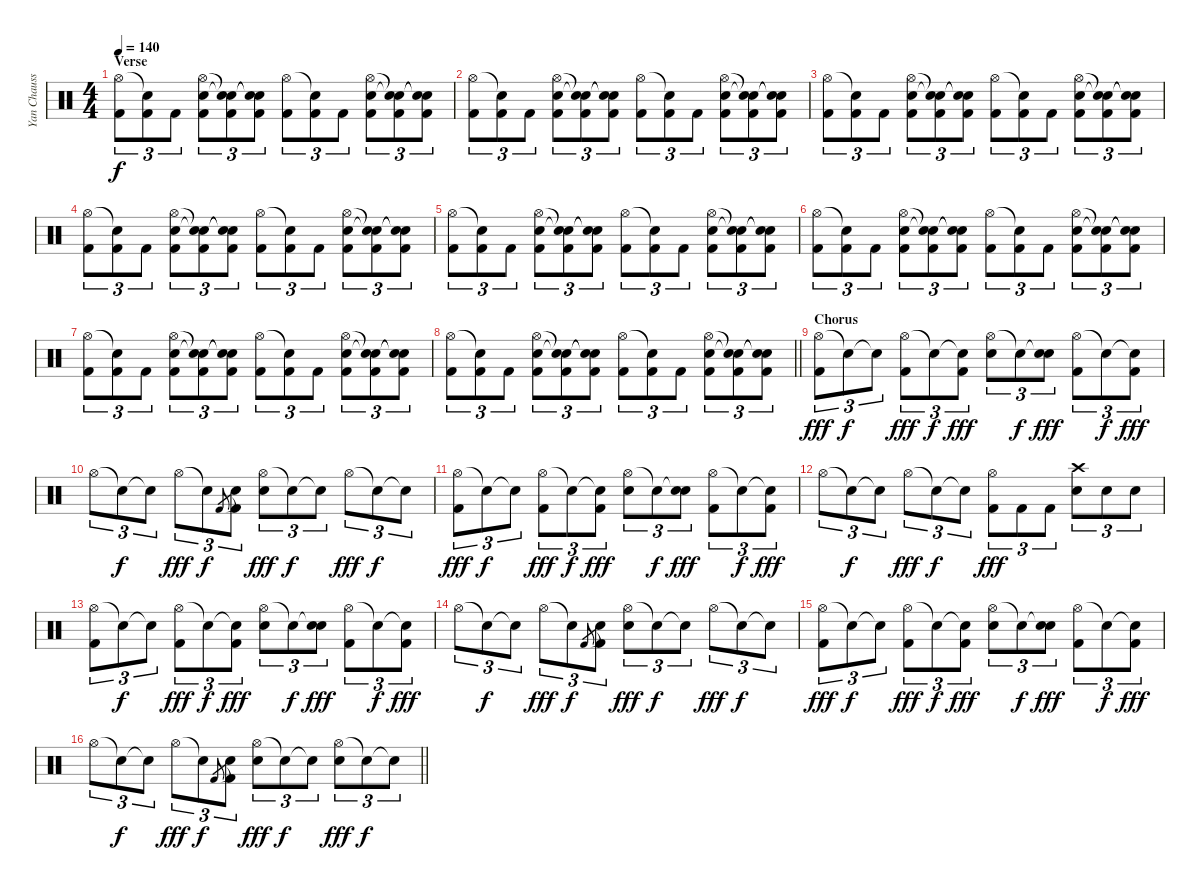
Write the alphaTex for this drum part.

\track ("Yan Chausse" "Yan Chauss") {instrument percussion}
\staff {score}
\articulation defaults
\ts (4 4)
\section ("" "Verse")
\tempo 140
\clef neutral
\ks c
("Hi-Hat (open)" "Kick (hit) 2").8{tu (3 2) dy f} ("Snare (hit)"{t} "Kick (hit) 2").8{tu (3 2)} "Kick (hit) 2".8{tu (3 2)} ("Hi-Hat (open)" "Snare (hit) 2" "Kick (hit) 2").8{tu (3 2)} ("Snare (hit)"{t} "Snare (hit)"{t} "Kick (hit) 2").8{tu (3 2)} ("Snare (hit)"{t} "Snare (hit)"{t} "Kick (hit) 2").8{tu (3 2)} ("Hi-Hat (open)" "Kick (hit) 2").8{tu (3 2)} ("Snare (hit)"{t} "Kick (hit) 2").8{tu (3 2)} "Kick (hit) 2".8{tu (3 2)} ("Hi-Hat (open)" "Snare (hit) 2" "Kick (hit) 2").8{tu (3 2)} ("Snare (hit)"{t} "Snare (hit)"{t} "Kick (hit) 2").8{tu (3 2)} ("Snare (hit)"{t} "Snare (hit)"{t} "Kick (hit) 2").8{tu (3 2)} |
("Hi-Hat (open)" "Kick (hit) 2").8{tu (3 2)} ("Snare (hit)"{t} "Kick (hit) 2").8{tu (3 2)} "Kick (hit) 2".8{tu (3 2)} ("Hi-Hat (open)" "Snare (hit) 2" "Kick (hit) 2").8{tu (3 2)} ("Snare (hit)"{t} "Snare (hit)"{t} "Kick (hit) 2").8{tu (3 2)} ("Snare (hit)"{t} "Snare (hit)"{t} "Kick (hit) 2").8{tu (3 2)} ("Hi-Hat (open)" "Kick (hit) 2").8{tu (3 2)} ("Snare (hit)"{t} "Kick (hit) 2").8{tu (3 2)} "Kick (hit) 2".8{tu (3 2)} ("Hi-Hat (open)" "Snare (hit) 2" "Kick (hit) 2").8{tu (3 2)} ("Snare (hit)"{t} "Snare (hit)"{t} "Kick (hit) 2").8{tu (3 2)} ("Snare (hit)"{t} "Snare (hit)"{t} "Kick (hit) 2").8{tu (3 2)} |
("Hi-Hat (open)" "Kick (hit) 2").8{tu (3 2)} ("Snare (hit)"{t} "Kick (hit) 2").8{tu (3 2)} "Kick (hit) 2".8{tu (3 2)} ("Hi-Hat (open)" "Snare (hit) 2" "Kick (hit) 2").8{tu (3 2)} ("Snare (hit)"{t} "Snare (hit)"{t} "Kick (hit) 2").8{tu (3 2)} ("Snare (hit)"{t} "Snare (hit)"{t} "Kick (hit) 2").8{tu (3 2)} ("Hi-Hat (open)" "Kick (hit) 2").8{tu (3 2)} ("Snare (hit)"{t} "Kick (hit) 2").8{tu (3 2)} "Kick (hit) 2".8{tu (3 2)} ("Hi-Hat (open)" "Snare (hit) 2" "Kick (hit) 2").8{tu (3 2)} ("Snare (hit)"{t} "Snare (hit)"{t} "Kick (hit) 2").8{tu (3 2)} ("Snare (hit)"{t} "Snare (hit)"{t} "Kick (hit) 2").8{tu (3 2)} |
("Hi-Hat (open)" "Kick (hit) 2").8{tu (3 2)} ("Snare (hit)"{t} "Kick (hit) 2").8{tu (3 2)} "Kick (hit) 2".8{tu (3 2)} ("Hi-Hat (open)" "Snare (hit) 2" "Kick (hit) 2").8{tu (3 2)} ("Snare (hit)"{t} "Snare (hit)"{t} "Kick (hit) 2").8{tu (3 2)} ("Snare (hit)"{t} "Snare (hit)"{t} "Kick (hit) 2").8{tu (3 2)} ("Hi-Hat (open)" "Kick (hit) 2").8{tu (3 2)} ("Snare (hit)"{t} "Kick (hit) 2").8{tu (3 2)} "Kick (hit) 2".8{tu (3 2)} ("Hi-Hat (open)" "Snare (hit) 2" "Kick (hit) 2").8{tu (3 2)} ("Snare (hit)"{t} "Snare (hit)"{t} "Kick (hit) 2").8{tu (3 2)} ("Snare (hit)"{t} "Snare (hit)"{t} "Kick (hit) 2").8{tu (3 2)} |
("Hi-Hat (open)" "Kick (hit) 2").8{tu (3 2)} ("Snare (hit)"{t} "Kick (hit) 2").8{tu (3 2)} "Kick (hit) 2".8{tu (3 2)} ("Hi-Hat (open)" "Snare (hit) 2" "Kick (hit) 2").8{tu (3 2)} ("Snare (hit)"{t} "Snare (hit)"{t} "Kick (hit) 2").8{tu (3 2)} ("Snare (hit)"{t} "Snare (hit)"{t} "Kick (hit) 2").8{tu (3 2)} ("Hi-Hat (open)" "Kick (hit) 2").8{tu (3 2)} ("Snare (hit)"{t} "Kick (hit) 2").8{tu (3 2)} "Kick (hit) 2".8{tu (3 2)} ("Hi-Hat (open)" "Snare (hit) 2" "Kick (hit) 2").8{tu (3 2)} ("Snare (hit)"{t} "Snare (hit)"{t} "Kick (hit) 2").8{tu (3 2)} ("Snare (hit)"{t} "Snare (hit)"{t} "Kick (hit) 2").8{tu (3 2)} |
("Hi-Hat (open)" "Kick (hit) 2").8{tu (3 2)} ("Snare (hit)"{t} "Kick (hit) 2").8{tu (3 2)} "Kick (hit) 2".8{tu (3 2)} ("Hi-Hat (open)" "Snare (hit) 2" "Kick (hit) 2").8{tu (3 2)} ("Snare (hit)"{t} "Snare (hit)"{t} "Kick (hit) 2").8{tu (3 2)} ("Snare (hit)"{t} "Snare (hit)"{t} "Kick (hit) 2").8{tu (3 2)} ("Hi-Hat (open)" "Kick (hit) 2").8{tu (3 2)} ("Snare (hit)"{t} "Kick (hit) 2").8{tu (3 2)} "Kick (hit) 2".8{tu (3 2)} ("Hi-Hat (open)" "Snare (hit) 2" "Kick (hit) 2").8{tu (3 2)} ("Snare (hit)"{t} "Snare (hit)"{t} "Kick (hit) 2").8{tu (3 2)} ("Snare (hit)"{t} "Snare (hit)"{t} "Kick (hit) 2").8{tu (3 2)} |
("Hi-Hat (open)" "Kick (hit) 2").8{tu (3 2)} ("Snare (hit)"{t} "Kick (hit) 2").8{tu (3 2)} "Kick (hit) 2".8{tu (3 2)} ("Hi-Hat (open)" "Snare (hit) 2" "Kick (hit) 2").8{tu (3 2)} ("Snare (hit)"{t} "Snare (hit)"{t} "Kick (hit) 2").8{tu (3 2)} ("Snare (hit)"{t} "Snare (hit)"{t} "Kick (hit) 2").8{tu (3 2)} ("Hi-Hat (open)" "Kick (hit) 2").8{tu (3 2)} ("Snare (hit)"{t} "Kick (hit) 2").8{tu (3 2)} "Kick (hit) 2".8{tu (3 2)} ("Hi-Hat (open)" "Snare (hit) 2" "Kick (hit) 2").8{tu (3 2)} ("Snare (hit)"{t} "Snare (hit)"{t} "Kick (hit) 2").8{tu (3 2)} ("Snare (hit)"{t} "Snare (hit)"{t} "Kick (hit) 2").8{tu (3 2)} |
\barLineRight lightlight
("Hi-Hat (open)" "Kick (hit) 2").8{tu (3 2)} ("Snare (hit)"{t} "Kick (hit) 2").8{tu (3 2)} "Kick (hit) 2".8{tu (3 2)} ("Hi-Hat (open)" "Snare (hit) 2" "Kick (hit) 2").8{tu (3 2)} ("Snare (hit)"{t} "Snare (hit)"{t} "Kick (hit) 2").8{tu (3 2)} ("Snare (hit)"{t} "Snare (hit)"{t} "Kick (hit) 2").8{tu (3 2)} ("Hi-Hat (open)" "Kick (hit) 2").8{tu (3 2)} ("Snare (hit)"{t} "Kick (hit) 2").8{tu (3 2)} "Kick (hit) 2".8{tu (3 2)} ("Hi-Hat (open)" "Snare (hit) 2" "Kick (hit) 2").8{tu (3 2)} ("Snare (hit)"{t} "Snare (hit)"{t} "Kick (hit) 2").8{tu (3 2)} ("Snare (hit)"{t} "Snare (hit)"{t} "Kick (hit) 2").8{tu (3 2)} |
\section ("" "Chorus")
("Hi-Hat (open)" "Kick (hit) 2").8{tu (3 2) dy fff} "Snare (hit)"{t}.8{tu (3 2) dy f} "Snare (hit)"{t}.8{tu (3 2)} ("Hi-Hat (open)" "Kick (hit) 2").8{tu (3 2) dy fff} "Snare (hit)"{t}.8{tu (3 2) dy f} ("Snare (hit)"{t} "Kick (hit) 2").8{tu (3 2) dy fff} ("Hi-Hat (open)" "Snare (hit) 2").8{tu (3 2)} "Snare (hit)"{t}.8{tu (3 2) dy f} ("Snare (hit)"{t} "Snare (hit) 2").8{tu (3 2) dy fff} ("Hi-Hat (open)" "Kick (hit) 2").8{tu (3 2)} "Snare (hit)"{t}.8{tu (3 2) dy f} ("Snare (hit)"{t} "Kick (hit) 2").8{tu (3 2) dy fff} |
"Hi-Hat (open)".8{tu (3 2)} "Snare (hit)"{t}.8{tu (3 2) dy f} "Snare (hit)"{t}.8{tu (3 2)} "Hi-Hat (open)".8{tu (3 2) dy fff} "Snare (hit)"{t}.8{tu (3 2) dy f} "Kick (hit) 2".8{gr} ("Snare (hit)"{t} "Kick (hit) 2").8{tu (3 2)} ("Hi-Hat (open)" "Snare (hit) 2").8{tu (3 2) dy fff} "Snare (hit)"{t}.8{tu (3 2) dy f} "Snare (hit)"{t}.8{tu (3 2)} "Hi-Hat (open)".8{tu (3 2) dy fff} "Snare (hit)"{t}.8{tu (3 2) dy f} "Snare (hit)"{t}.8{tu (3 2)} |
("Hi-Hat (open)" "Kick (hit) 2").8{tu (3 2) dy fff} "Snare (hit)"{t}.8{tu (3 2) dy f} "Snare (hit)"{t}.8{tu (3 2)} ("Hi-Hat (open)" "Kick (hit) 2").8{tu (3 2) dy fff} "Snare (hit)"{t}.8{tu (3 2) dy f} ("Snare (hit)"{t} "Kick (hit) 2").8{tu (3 2) dy fff} ("Hi-Hat (open)" "Snare (hit) 2").8{tu (3 2)} "Snare (hit)"{t}.8{tu (3 2) dy f} ("Snare (hit)"{t} "Snare (hit) 2").8{tu (3 2) dy fff} ("Hi-Hat (open)" "Kick (hit) 2").8{tu (3 2)} "Snare (hit)"{t}.8{tu (3 2) dy f} ("Snare (hit)"{t} "Kick (hit) 2").8{tu (3 2) dy fff} |
"Hi-Hat (open)".8{tu (3 2)} "Snare (hit)"{t}.8{tu (3 2) dy f} "Snare (hit)"{t}.8{tu (3 2)} "Hi-Hat (open)".8{tu (3 2) dy fff} "Snare (hit)"{t}.8{tu (3 2) dy f} "Snare (hit)"{t}.8{tu (3 2)} ("Hi-Hat (open)" "Kick (hit) 2").8{tu (3 2) dy fff} "Kick (hit) 2".8{tu (3 2)} "Kick (hit) 2".8{tu (3 2)} ("Crash high (hit)" "Snare (hit) 2").8{tu (3 2)} "Snare (hit) 2".8{tu (3 2)} "Snare (hit) 2".8{tu (3 2)} |
("Hi-Hat (open)" "Kick (hit) 2").8{tu (3 2)} "Snare (hit)"{t}.8{tu (3 2) dy f} "Snare (hit)"{t}.8{tu (3 2)} ("Hi-Hat (open)" "Kick (hit) 2").8{tu (3 2) dy fff} "Snare (hit)"{t}.8{tu (3 2) dy f} ("Snare (hit)"{t} "Kick (hit) 2").8{tu (3 2) dy fff} ("Hi-Hat (open)" "Snare (hit) 2").8{tu (3 2)} "Snare (hit)"{t}.8{tu (3 2) dy f} ("Snare (hit)"{t} "Snare (hit) 2").8{tu (3 2) dy fff} ("Hi-Hat (open)" "Kick (hit) 2").8{tu (3 2)} "Snare (hit)"{t}.8{tu (3 2) dy f} ("Snare (hit)"{t} "Kick (hit) 2").8{tu (3 2) dy fff} |
"Hi-Hat (open)".8{tu (3 2)} "Snare (hit)"{t}.8{tu (3 2) dy f} "Snare (hit)"{t}.8{tu (3 2)} "Hi-Hat (open)".8{tu (3 2) dy fff} "Snare (hit)"{t}.8{tu (3 2) dy f} "Kick (hit) 2".8{gr} ("Snare (hit)"{t} "Kick (hit) 2").8{tu (3 2)} ("Hi-Hat (open)" "Snare (hit) 2").8{tu (3 2) dy fff} "Snare (hit)"{t}.8{tu (3 2) dy f} "Snare (hit)"{t}.8{tu (3 2)} "Hi-Hat (open)".8{tu (3 2) dy fff} "Snare (hit)"{t}.8{tu (3 2) dy f} "Snare (hit)"{t}.8{tu (3 2)} |
("Hi-Hat (open)" "Kick (hit) 2").8{tu (3 2) dy fff} "Snare (hit)"{t}.8{tu (3 2) dy f} "Snare (hit)"{t}.8{tu (3 2)} ("Hi-Hat (open)" "Kick (hit) 2").8{tu (3 2) dy fff} "Snare (hit)"{t}.8{tu (3 2) dy f} ("Snare (hit)"{t} "Kick (hit) 2").8{tu (3 2) dy fff} ("Hi-Hat (open)" "Snare (hit) 2").8{tu (3 2)} "Snare (hit)"{t}.8{tu (3 2) dy f} ("Snare (hit)"{t} "Snare (hit) 2").8{tu (3 2) dy fff} ("Hi-Hat (open)" "Kick (hit) 2").8{tu (3 2)} "Snare (hit)"{t}.8{tu (3 2) dy f} ("Snare (hit)"{t} "Kick (hit) 2").8{tu (3 2) dy fff} |
\barLineRight lightlight "Hi-Hat (open)".8{tu (3 2)} "Snare (hit)"{t}.8{tu (3 2) dy f} "Snare (hit)"{t}.8{tu (3 2)} "Hi-Hat (open)".8{tu (3 2) dy fff} "Snare (hit)"{t}.8{tu (3 2) dy f} "Kick (hit) 2".8{gr}
("Snare (hit)"{t} "Kick (hit) 2").8{tu (3 2)} ("Hi-Hat (open)" "Snare (hit) 2").8{tu (3 2) dy fff} "Snare (hit)"{t}.8{tu (3 2) dy f} "Snare (hit)"{t}.8{tu (3 2)} ("Hi-Hat (open)" "Snare (hit) 2").8{tu (3 2) dy fff} "Snare (hit)"{t}.8{tu (3 2) dy f} "Snare (hit)"{t}.8{tu (3 2)}
